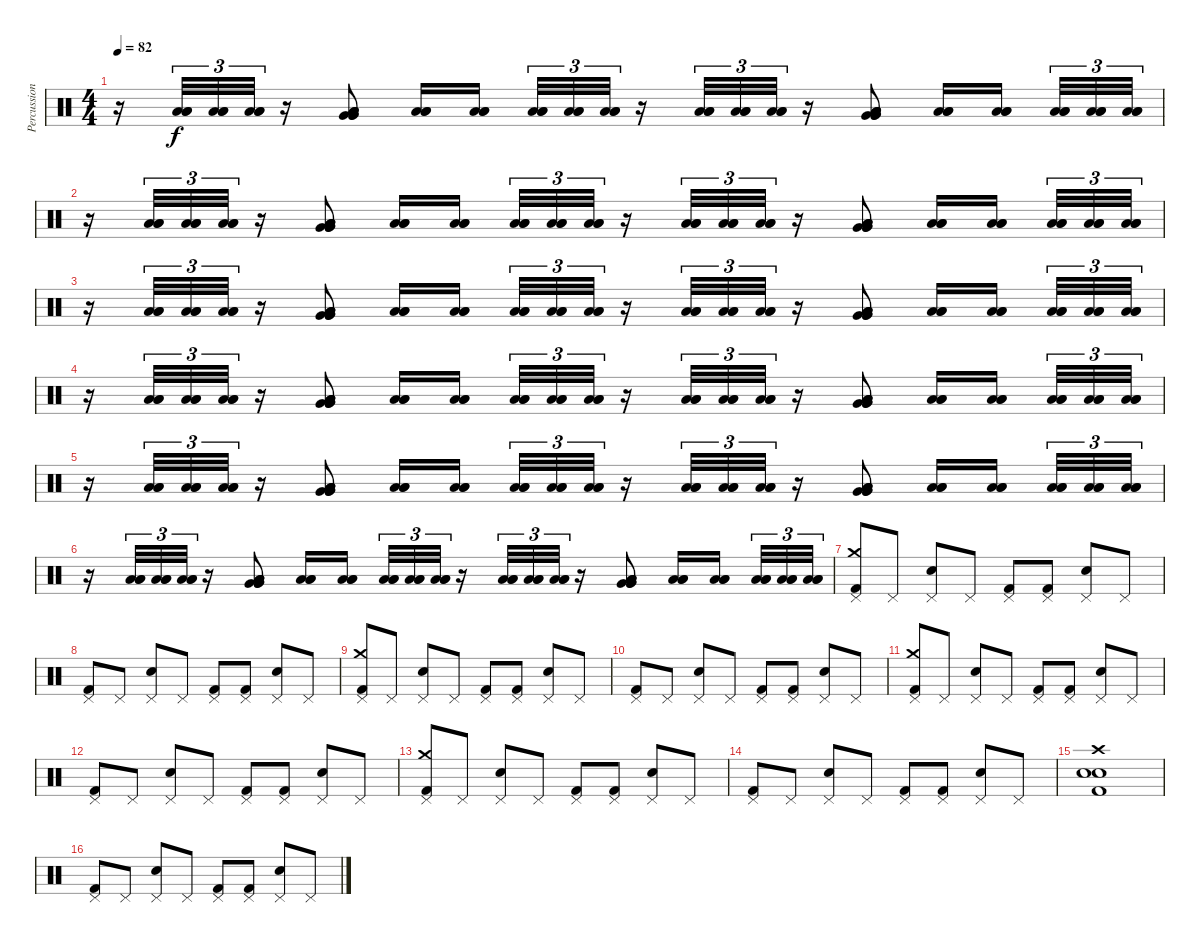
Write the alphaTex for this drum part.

\track ("Percussion" "Percussion") {instrument percussion}
\staff {score}
\articulation defaults
\ts (4 4)
\tempo 82
\clef neutral
\ks c
r.16{dy f} ("Low Tom (hit)" "Low Tom (hit)" "Low Tom (hit)").32{tu (3 2)} ("Low Tom (hit)" "Low Tom (hit)" "Low Tom (hit)").32{tu (3 2)} ("Low Tom (hit)" "Low Tom (hit)" "Low Tom (hit)").32{tu (3 2)} r.16 ("Very Low Tom (hit)" "Very Low Tom (hit)" "Low Tom (hit)" "Low Tom (hit)" "Low Tom (hit)" "Very Low Tom (hit)").8 ("Low Tom (hit)" "Low Tom (hit)" "Low Tom (hit)").16 ("Low Tom (hit)" "Low Tom (hit)" "Low Tom (hit)").16 ("Low Tom (hit)" "Low Tom (hit)" "Low Tom (hit)").32{tu (3 2)} ("Low Tom (hit)" "Low Tom (hit)" "Low Tom (hit)").32{tu (3 2)} ("Low Tom (hit)" "Low Tom (hit)" "Low Tom (hit)").32{tu (3 2)} r.16 ("Low Tom (hit)" "Low Tom (hit)" "Low Tom (hit)").32{tu (3 2)} ("Low Tom (hit)" "Low Tom (hit)" "Low Tom (hit)").32{tu (3 2)} ("Low Tom (hit)" "Low Tom (hit)" "Low Tom (hit)").32{tu (3 2)} r.16 ("Very Low Tom (hit)" "Very Low Tom (hit)" "Low Tom (hit)" "Low Tom (hit)" "Low Tom (hit)" "Very Low Tom (hit)").8 ("Low Tom (hit)" "Low Tom (hit)" "Low Tom (hit)").16 ("Low Tom (hit)" "Low Tom (hit)" "Low Tom (hit)").16 ("Low Tom (hit)" "Low Tom (hit)" "Low Tom (hit)").32{tu (3 2)} ("Low Tom (hit)" "Low Tom (hit)" "Low Tom (hit)").32{tu (3 2)} ("Low Tom (hit)" "Low Tom (hit)" "Low Tom (hit)").32{tu (3 2)} |
r.16 ("Low Tom (hit)" "Low Tom (hit)" "Low Tom (hit)").32{tu (3 2)} ("Low Tom (hit)" "Low Tom (hit)" "Low Tom (hit)").32{tu (3 2)} ("Low Tom (hit)" "Low Tom (hit)" "Low Tom (hit)").32{tu (3 2)} r.16 ("Very Low Tom (hit)" "Very Low Tom (hit)" "Low Tom (hit)" "Low Tom (hit)" "Low Tom (hit)" "Very Low Tom (hit)").8 ("Low Tom (hit)" "Low Tom (hit)" "Low Tom (hit)").16 ("Low Tom (hit)" "Low Tom (hit)" "Low Tom (hit)").16 ("Low Tom (hit)" "Low Tom (hit)" "Low Tom (hit)").32{tu (3 2)} ("Low Tom (hit)" "Low Tom (hit)" "Low Tom (hit)").32{tu (3 2)} ("Low Tom (hit)" "Low Tom (hit)" "Low Tom (hit)").32{tu (3 2)} r.16 ("Low Tom (hit)" "Low Tom (hit)" "Low Tom (hit)").32{tu (3 2)} ("Low Tom (hit)" "Low Tom (hit)" "Low Tom (hit)").32{tu (3 2)} ("Low Tom (hit)" "Low Tom (hit)" "Low Tom (hit)").32{tu (3 2)} r.16 ("Very Low Tom (hit)" "Very Low Tom (hit)" "Low Tom (hit)" "Low Tom (hit)" "Low Tom (hit)" "Very Low Tom (hit)").8 ("Low Tom (hit)" "Low Tom (hit)" "Low Tom (hit)").16 ("Low Tom (hit)" "Low Tom (hit)" "Low Tom (hit)").16 ("Low Tom (hit)" "Low Tom (hit)" "Low Tom (hit)").32{tu (3 2)} ("Low Tom (hit)" "Low Tom (hit)" "Low Tom (hit)").32{tu (3 2)} ("Low Tom (hit)" "Low Tom (hit)" "Low Tom (hit)").32{tu (3 2)} |
r.16 ("Low Tom (hit)" "Low Tom (hit)" "Low Tom (hit)").32{tu (3 2)} ("Low Tom (hit)" "Low Tom (hit)" "Low Tom (hit)").32{tu (3 2)} ("Low Tom (hit)" "Low Tom (hit)" "Low Tom (hit)").32{tu (3 2)} r.16 ("Very Low Tom (hit)" "Very Low Tom (hit)" "Low Tom (hit)" "Low Tom (hit)" "Low Tom (hit)" "Very Low Tom (hit)").8 ("Low Tom (hit)" "Low Tom (hit)" "Low Tom (hit)").16 ("Low Tom (hit)" "Low Tom (hit)" "Low Tom (hit)").16 ("Low Tom (hit)" "Low Tom (hit)" "Low Tom (hit)").32{tu (3 2)} ("Low Tom (hit)" "Low Tom (hit)" "Low Tom (hit)").32{tu (3 2)} ("Low Tom (hit)" "Low Tom (hit)" "Low Tom (hit)").32{tu (3 2)} r.16 ("Low Tom (hit)" "Low Tom (hit)" "Low Tom (hit)").32{tu (3 2)} ("Low Tom (hit)" "Low Tom (hit)" "Low Tom (hit)").32{tu (3 2)} ("Low Tom (hit)" "Low Tom (hit)" "Low Tom (hit)").32{tu (3 2)} r.16 ("Very Low Tom (hit)" "Very Low Tom (hit)" "Low Tom (hit)" "Low Tom (hit)" "Low Tom (hit)" "Very Low Tom (hit)").8 ("Low Tom (hit)" "Low Tom (hit)" "Low Tom (hit)").16 ("Low Tom (hit)" "Low Tom (hit)" "Low Tom (hit)").16 ("Low Tom (hit)" "Low Tom (hit)" "Low Tom (hit)").32{tu (3 2)} ("Low Tom (hit)" "Low Tom (hit)" "Low Tom (hit)").32{tu (3 2)} ("Low Tom (hit)" "Low Tom (hit)" "Low Tom (hit)").32{tu (3 2)} |
r.16 ("Low Tom (hit)" "Low Tom (hit)" "Low Tom (hit)").32{tu (3 2)} ("Low Tom (hit)" "Low Tom (hit)" "Low Tom (hit)").32{tu (3 2)} ("Low Tom (hit)" "Low Tom (hit)" "Low Tom (hit)").32{tu (3 2)} r.16 ("Very Low Tom (hit)" "Very Low Tom (hit)" "Low Tom (hit)" "Low Tom (hit)" "Low Tom (hit)" "Very Low Tom (hit)").8 ("Low Tom (hit)" "Low Tom (hit)" "Low Tom (hit)").16 ("Low Tom (hit)" "Low Tom (hit)" "Low Tom (hit)").16 ("Low Tom (hit)" "Low Tom (hit)" "Low Tom (hit)").32{tu (3 2)} ("Low Tom (hit)" "Low Tom (hit)" "Low Tom (hit)").32{tu (3 2)} ("Low Tom (hit)" "Low Tom (hit)" "Low Tom (hit)").32{tu (3 2)} r.16 ("Low Tom (hit)" "Low Tom (hit)" "Low Tom (hit)").32{tu (3 2)} ("Low Tom (hit)" "Low Tom (hit)" "Low Tom (hit)").32{tu (3 2)} ("Low Tom (hit)" "Low Tom (hit)" "Low Tom (hit)").32{tu (3 2)} r.16 ("Very Low Tom (hit)" "Very Low Tom (hit)" "Low Tom (hit)" "Low Tom (hit)" "Low Tom (hit)" "Very Low Tom (hit)").8 ("Low Tom (hit)" "Low Tom (hit)" "Low Tom (hit)").16 ("Low Tom (hit)" "Low Tom (hit)" "Low Tom (hit)").16 ("Low Tom (hit)" "Low Tom (hit)" "Low Tom (hit)").32{tu (3 2)} ("Low Tom (hit)" "Low Tom (hit)" "Low Tom (hit)").32{tu (3 2)} ("Low Tom (hit)" "Low Tom (hit)" "Low Tom (hit)").32{tu (3 2)} |
r.16 ("Low Tom (hit)" "Low Tom (hit)" "Low Tom (hit)").32{tu (3 2)} ("Low Tom (hit)" "Low Tom (hit)" "Low Tom (hit)").32{tu (3 2)} ("Low Tom (hit)" "Low Tom (hit)" "Low Tom (hit)").32{tu (3 2)} r.16 ("Very Low Tom (hit)" "Very Low Tom (hit)" "Low Tom (hit)" "Low Tom (hit)" "Low Tom (hit)" "Very Low Tom (hit)").8 ("Low Tom (hit)" "Low Tom (hit)" "Low Tom (hit)").16 ("Low Tom (hit)" "Low Tom (hit)" "Low Tom (hit)").16 ("Low Tom (hit)" "Low Tom (hit)" "Low Tom (hit)").32{tu (3 2)} ("Low Tom (hit)" "Low Tom (hit)" "Low Tom (hit)").32{tu (3 2)} ("Low Tom (hit)" "Low Tom (hit)" "Low Tom (hit)").32{tu (3 2)} r.16 ("Low Tom (hit)" "Low Tom (hit)" "Low Tom (hit)").32{tu (3 2)} ("Low Tom (hit)" "Low Tom (hit)" "Low Tom (hit)").32{tu (3 2)} ("Low Tom (hit)" "Low Tom (hit)" "Low Tom (hit)").32{tu (3 2)} r.16 ("Very Low Tom (hit)" "Very Low Tom (hit)" "Low Tom (hit)" "Low Tom (hit)" "Low Tom (hit)" "Very Low Tom (hit)").8 ("Low Tom (hit)" "Low Tom (hit)" "Low Tom (hit)").16 ("Low Tom (hit)" "Low Tom (hit)" "Low Tom (hit)").16 ("Low Tom (hit)" "Low Tom (hit)" "Low Tom (hit)").32{tu (3 2)} ("Low Tom (hit)" "Low Tom (hit)" "Low Tom (hit)").32{tu (3 2)} ("Low Tom (hit)" "Low Tom (hit)" "Low Tom (hit)").32{tu (3 2)} |
r.16 ("Low Tom (hit)" "Low Tom (hit)" "Low Tom (hit)").32{tu (3 2)} ("Low Tom (hit)" "Low Tom (hit)" "Low Tom (hit)").32{tu (3 2)} ("Low Tom (hit)" "Low Tom (hit)" "Low Tom (hit)").32{tu (3 2)} r.16 ("Very Low Tom (hit)" "Very Low Tom (hit)" "Low Tom (hit)" "Low Tom (hit)" "Low Tom (hit)" "Very Low Tom (hit)").8 ("Low Tom (hit)" "Low Tom (hit)" "Low Tom (hit)").16 ("Low Tom (hit)" "Low Tom (hit)" "Low Tom (hit)").16 ("Low Tom (hit)" "Low Tom (hit)" "Low Tom (hit)").32{tu (3 2)} ("Low Tom (hit)" "Low Tom (hit)" "Low Tom (hit)").32{tu (3 2)} ("Low Tom (hit)" "Low Tom (hit)" "Low Tom (hit)").32{tu (3 2)} r.16 ("Low Tom (hit)" "Low Tom (hit)" "Low Tom (hit)").32{tu (3 2)} ("Low Tom (hit)" "Low Tom (hit)" "Low Tom (hit)").32{tu (3 2)} ("Low Tom (hit)" "Low Tom (hit)" "Low Tom (hit)").32{tu (3 2)} r.16 ("Very Low Tom (hit)" "Very Low Tom (hit)" "Low Tom (hit)" "Low Tom (hit)" "Low Tom (hit)" "Very Low Tom (hit)").8 ("Low Tom (hit)" "Low Tom (hit)" "Low Tom (hit)").16 ("Low Tom (hit)" "Low Tom (hit)" "Low Tom (hit)").16 ("Low Tom (hit)" "Low Tom (hit)" "Low Tom (hit)").32{tu (3 2)} ("Low Tom (hit)" "Low Tom (hit)" "Low Tom (hit)").32{tu (3 2)} ("Low Tom (hit)" "Low Tom (hit)" "Low Tom (hit)").32{tu (3 2)} |
("Pedal Hi-Hat (hit)" "Crash medium (hit)" "Kick (hit) 2").8 "Pedal Hi-Hat (hit)".8 ("Pedal Hi-Hat (hit)" "Electric Snare (hit)").8 "Pedal Hi-Hat (hit)".8 ("Pedal Hi-Hat (hit)" "Kick (hit) 2").8 ("Pedal Hi-Hat (hit)" "Kick (hit) 2").8 ("Pedal Hi-Hat (hit)" "Electric Snare (hit)").8 "Pedal Hi-Hat (hit)".8 |
("Pedal Hi-Hat (hit)" "Kick (hit) 2").8 "Pedal Hi-Hat (hit)".8 ("Pedal Hi-Hat (hit)" "Electric Snare (hit)").8 "Pedal Hi-Hat (hit)".8 ("Pedal Hi-Hat (hit)" "Kick (hit) 2").8 ("Pedal Hi-Hat (hit)" "Kick (hit) 2").8 ("Pedal Hi-Hat (hit)" "Electric Snare (hit)").8 "Pedal Hi-Hat (hit)".8 |
("Pedal Hi-Hat (hit)" "Crash medium (hit)" "Kick (hit) 2").8 "Pedal Hi-Hat (hit)".8 ("Pedal Hi-Hat (hit)" "Electric Snare (hit)").8 "Pedal Hi-Hat (hit)".8 ("Pedal Hi-Hat (hit)" "Kick (hit) 2").8 ("Pedal Hi-Hat (hit)" "Kick (hit) 2").8 ("Pedal Hi-Hat (hit)" "Electric Snare (hit)").8 "Pedal Hi-Hat (hit)".8 |
("Pedal Hi-Hat (hit)" "Kick (hit) 2").8 "Pedal Hi-Hat (hit)".8 ("Pedal Hi-Hat (hit)" "Electric Snare (hit)").8 "Pedal Hi-Hat (hit)".8 ("Pedal Hi-Hat (hit)" "Kick (hit) 2").8 ("Pedal Hi-Hat (hit)" "Kick (hit) 2").8 ("Pedal Hi-Hat (hit)" "Electric Snare (hit)").8 "Pedal Hi-Hat (hit)".8 |
("Pedal Hi-Hat (hit)" "Crash medium (hit)" "Kick (hit) 2").8 "Pedal Hi-Hat (hit)".8 ("Pedal Hi-Hat (hit)" "Electric Snare (hit)").8 "Pedal Hi-Hat (hit)".8 ("Pedal Hi-Hat (hit)" "Kick (hit) 2").8 ("Pedal Hi-Hat (hit)" "Kick (hit) 2").8 ("Pedal Hi-Hat (hit)" "Electric Snare (hit)").8 "Pedal Hi-Hat (hit)".8 |
("Pedal Hi-Hat (hit)" "Kick (hit) 2").8 "Pedal Hi-Hat (hit)".8 ("Pedal Hi-Hat (hit)" "Electric Snare (hit)").8 "Pedal Hi-Hat (hit)".8 ("Pedal Hi-Hat (hit)" "Kick (hit) 2").8 ("Pedal Hi-Hat (hit)" "Kick (hit) 2").8 ("Pedal Hi-Hat (hit)" "Electric Snare (hit)").8 "Pedal Hi-Hat (hit)".8 |
("Pedal Hi-Hat (hit)" "Crash medium (hit)" "Kick (hit) 2").8 "Pedal Hi-Hat (hit)".8 ("Pedal Hi-Hat (hit)" "Electric Snare (hit)").8 "Pedal Hi-Hat (hit)".8 ("Pedal Hi-Hat (hit)" "Kick (hit) 2").8 ("Pedal Hi-Hat (hit)" "Kick (hit) 2").8 ("Pedal Hi-Hat (hit)" "Electric Snare (hit)").8 "Pedal Hi-Hat (hit)".8 |
("Pedal Hi-Hat (hit)" "Kick (hit) 2").8 "Pedal Hi-Hat (hit)".8 ("Pedal Hi-Hat (hit)" "Electric Snare (hit)").8 "Pedal Hi-Hat (hit)".8 ("Pedal Hi-Hat (hit)" "Kick (hit) 2").8 ("Pedal Hi-Hat (hit)" "Kick (hit) 2").8 ("Pedal Hi-Hat (hit)" "Electric Snare (hit)").8 "Pedal Hi-Hat (hit)".8 |
("Electric Snare (hit)" "Electric Snare (hit)" "Crash high (hit)" "Kick (hit) 2").1 |
("Pedal Hi-Hat (hit)" "Kick (hit) 2").8 "Pedal Hi-Hat (hit)".8 ("Pedal Hi-Hat (hit)" "Electric Snare (hit)").8 "Pedal Hi-Hat (hit)".8 ("Pedal Hi-Hat (hit)" "Kick (hit) 2").8 ("Pedal Hi-Hat (hit)" "Kick (hit) 2").8 ("Pedal Hi-Hat (hit)" "Electric Snare (hit)").8 "Pedal Hi-Hat (hit)".8
